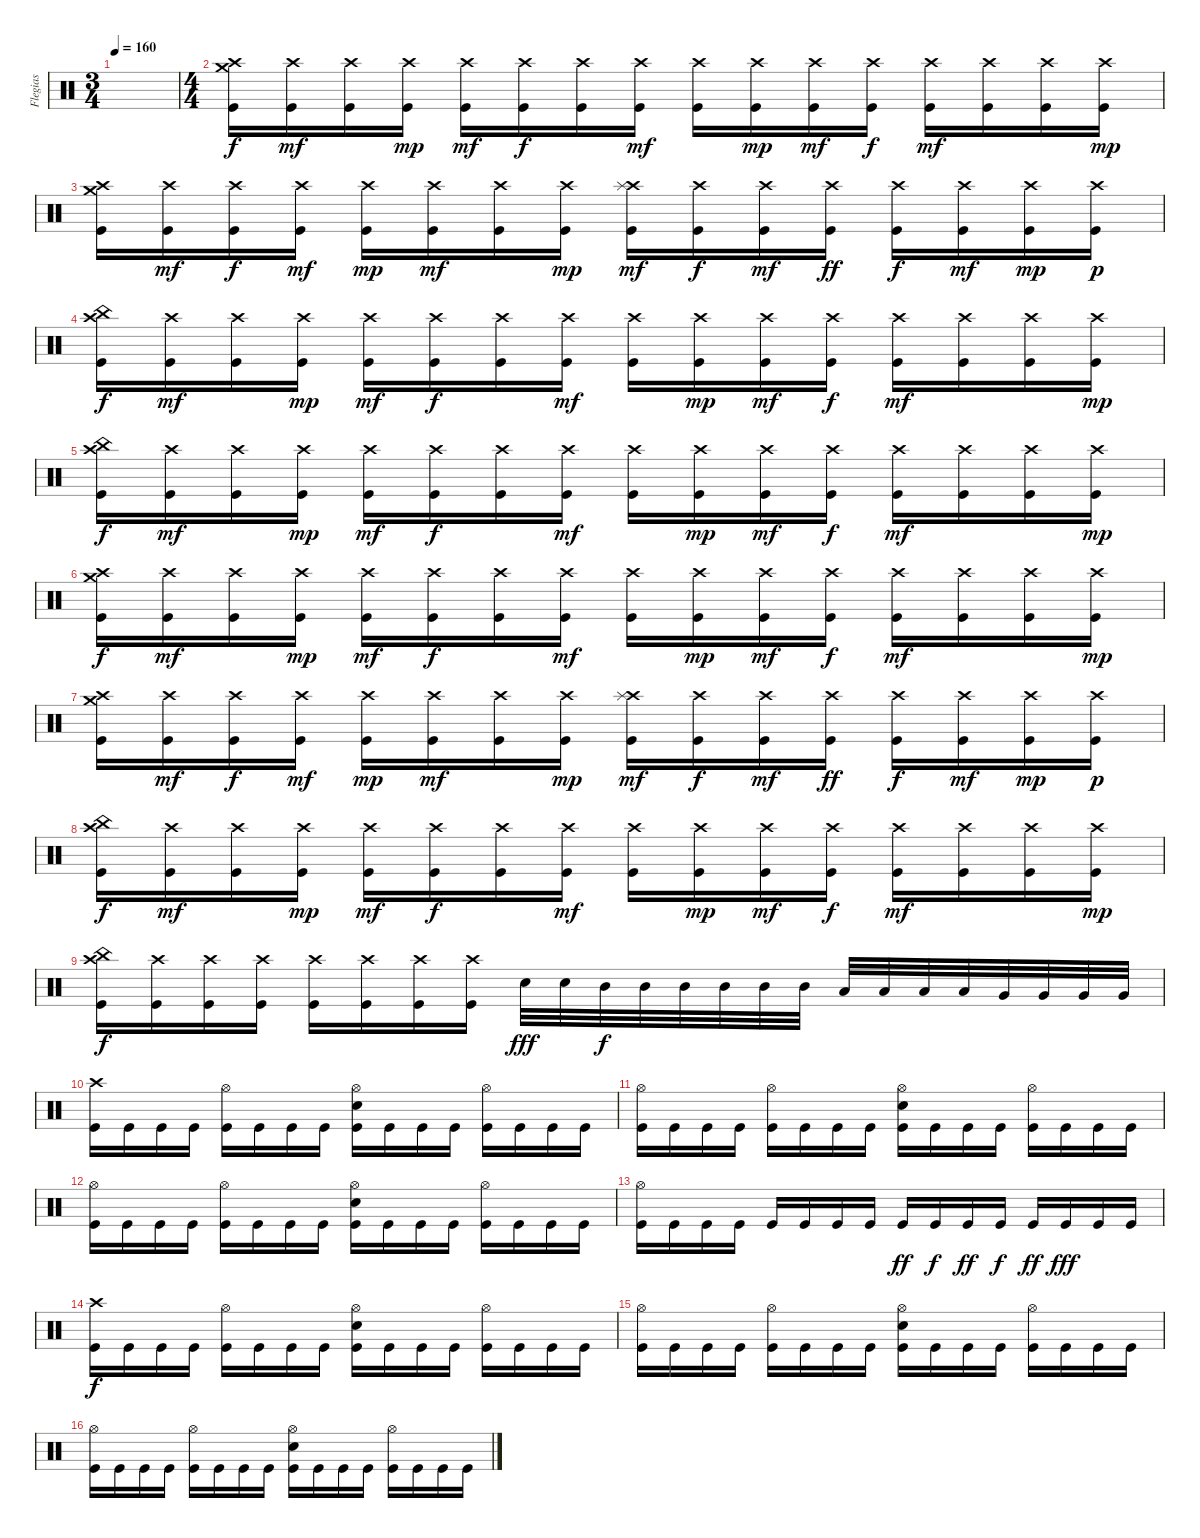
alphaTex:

\track ("Flegias" "Flegias") {instrument percussion}
\staff {score}
\articulation defaults
\ts (3 4)
\tempo 160
\clef neutral
\ks c
|
\ts (4 4)
("Crash high (hit)" "Crash medium (hit)" "Kick (hit)").16 ("Crash high (hit)" "Kick (hit)").16{dy mf} ("Crash high (hit)" "Kick (hit)").16 ("Crash high (hit)" "Kick (hit)").16{dy mp} ("Crash high (hit)" "Kick (hit)").16{dy mf} ("Crash high (hit)" "Kick (hit)").16{dy f} ("Crash high (hit)" "Kick (hit)").16 ("Crash high (hit)" "Kick (hit)").16{dy mf} ("Crash high (hit)" "Kick (hit)").16 ("Crash high (hit)" "Kick (hit)").16{dy mp} ("Crash high (hit)" "Kick (hit)").16{dy mf} ("Crash high (hit)" "Kick (hit)").16{dy f} ("Crash high (hit)" "Kick (hit)").16{dy mf} ("Crash high (hit)" "Kick (hit)").16 ("Crash high (hit)" "Kick (hit)").16 ("Crash high (hit)" "Kick (hit)").16{dy mp} |
("Crash high (hit)" "Crash medium (hit)" "Kick (hit)").16 ("Crash high (hit)" "Kick (hit)").16{dy mf} ("Crash high (hit)" "Kick (hit)").16{dy f} ("Crash high (hit)" "Kick (hit)").16{dy mf} ("Crash high (hit)" "Kick (hit)").16{dy mp} ("Crash high (hit)" "Kick (hit)").16{dy mf} ("Crash high (hit)" "Kick (hit)").16 ("Crash high (hit)" "Kick (hit)").16{dy mp} ("Crash high (hit)" "Splash (hit)" "Kick (hit)").16{dy mf} ("Crash high (hit)" "Kick (hit)").16{dy f} ("Crash high (hit)" "Kick (hit)").16{dy mf} ("Crash high (hit)" "Kick (hit)").16{dy ff} ("Crash high (hit)" "Kick (hit)").16{dy f} ("Crash high (hit)" "Kick (hit)").16{dy mf} ("Crash high (hit)" "Kick (hit)").16{dy mp} ("Crash high (hit)" "Kick (hit)").16{dy p} |
("Crash high (hit)" "China (hit)" "Kick (hit)").16{dy f} ("Crash high (hit)" "Kick (hit)").16{dy mf} ("Crash high (hit)" "Kick (hit)").16 ("Crash high (hit)" "Kick (hit)").16{dy mp} ("Crash high (hit)" "Kick (hit)").16{dy mf} ("Crash high (hit)" "Kick (hit)").16{dy f} ("Crash high (hit)" "Kick (hit)").16 ("Crash high (hit)" "Kick (hit)").16{dy mf} ("Crash high (hit)" "Kick (hit)").16 ("Crash high (hit)" "Kick (hit)").16{dy mp} ("Crash high (hit)" "Kick (hit)").16{dy mf} ("Crash high (hit)" "Kick (hit)").16{dy f} ("Crash high (hit)" "Kick (hit)").16{dy mf} ("Crash high (hit)" "Kick (hit)").16 ("Crash high (hit)" "Kick (hit)").16 ("Crash high (hit)" "Kick (hit)").16{dy mp} |
("Crash high (hit)" "China (hit)" "Kick (hit)").16{dy f} ("Crash high (hit)" "Kick (hit)").16{dy mf} ("Crash high (hit)" "Kick (hit)").16 ("Crash high (hit)" "Kick (hit)").16{dy mp} ("Crash high (hit)" "Kick (hit)").16{dy mf} ("Crash high (hit)" "Kick (hit)").16{dy f} ("Crash high (hit)" "Kick (hit)").16 ("Crash high (hit)" "Kick (hit)").16{dy mf} ("Crash high (hit)" "Kick (hit)").16 ("Crash high (hit)" "Kick (hit)").16{dy mp} ("Crash high (hit)" "Kick (hit)").16{dy mf} ("Crash high (hit)" "Kick (hit)").16{dy f} ("Crash high (hit)" "Kick (hit)").16{dy mf} ("Crash high (hit)" "Kick (hit)").16 ("Crash high (hit)" "Kick (hit)").16 ("Crash high (hit)" "Kick (hit)").16{dy mp} |
("Crash high (hit)" "Crash medium (hit)" "Kick (hit)").16{dy f} ("Crash high (hit)" "Kick (hit)").16{dy mf} ("Crash high (hit)" "Kick (hit)").16 ("Crash high (hit)" "Kick (hit)").16{dy mp} ("Crash high (hit)" "Kick (hit)").16{dy mf} ("Crash high (hit)" "Kick (hit)").16{dy f} ("Crash high (hit)" "Kick (hit)").16 ("Crash high (hit)" "Kick (hit)").16{dy mf} ("Crash high (hit)" "Kick (hit)").16 ("Crash high (hit)" "Kick (hit)").16{dy mp} ("Crash high (hit)" "Kick (hit)").16{dy mf} ("Crash high (hit)" "Kick (hit)").16{dy f} ("Crash high (hit)" "Kick (hit)").16{dy mf} ("Crash high (hit)" "Kick (hit)").16 ("Crash high (hit)" "Kick (hit)").16 ("Crash high (hit)" "Kick (hit)").16{dy mp} |
("Crash high (hit)" "Crash medium (hit)" "Kick (hit)").16 ("Crash high (hit)" "Kick (hit)").16{dy mf} ("Crash high (hit)" "Kick (hit)").16{dy f} ("Crash high (hit)" "Kick (hit)").16{dy mf} ("Crash high (hit)" "Kick (hit)").16{dy mp} ("Crash high (hit)" "Kick (hit)").16{dy mf} ("Crash high (hit)" "Kick (hit)").16 ("Crash high (hit)" "Kick (hit)").16{dy mp} ("Crash high (hit)" "Splash (hit)" "Kick (hit)").16{dy mf} ("Crash high (hit)" "Kick (hit)").16{dy f} ("Crash high (hit)" "Kick (hit)").16{dy mf} ("Crash high (hit)" "Kick (hit)").16{dy ff} ("Crash high (hit)" "Kick (hit)").16{dy f} ("Crash high (hit)" "Kick (hit)").16{dy mf} ("Crash high (hit)" "Kick (hit)").16{dy mp} ("Crash high (hit)" "Kick (hit)").16{dy p} |
("Crash high (hit)" "China (hit)" "Kick (hit)").16{dy f} ("Crash high (hit)" "Kick (hit)").16{dy mf} ("Crash high (hit)" "Kick (hit)").16 ("Crash high (hit)" "Kick (hit)").16{dy mp} ("Crash high (hit)" "Kick (hit)").16{dy mf} ("Crash high (hit)" "Kick (hit)").16{dy f} ("Crash high (hit)" "Kick (hit)").16 ("Crash high (hit)" "Kick (hit)").16{dy mf} ("Crash high (hit)" "Kick (hit)").16 ("Crash high (hit)" "Kick (hit)").16{dy mp} ("Crash high (hit)" "Kick (hit)").16{dy mf} ("Crash high (hit)" "Kick (hit)").16{dy f} ("Crash high (hit)" "Kick (hit)").16{dy mf} ("Crash high (hit)" "Kick (hit)").16 ("Crash high (hit)" "Kick (hit)").16 ("Crash high (hit)" "Kick (hit)").16{dy mp} |
("Crash high (hit)" "China (hit)" "Kick (hit)").16{dy f} ("Crash high (hit)" "Kick (hit)").16 ("Crash high (hit)" "Kick (hit)").16 ("Crash high (hit)" "Kick (hit)").16 ("Crash high (hit)" "Kick (hit)").16 ("Crash high (hit)" "Kick (hit)").16 ("Crash high (hit)" "Kick (hit)").16 ("Crash high (hit)" "Kick (hit)").16 "Snare (hit) 2".32{dy fff} "Snare (hit) 2".32 "Mid Tom (hit)".32{dy f} "Mid Tom (hit)".32 "Mid Tom (hit)".32 "Mid Tom (hit)".32 "Mid Tom (hit)".32 "Mid Tom (hit)".32 "Low Tom (hit)".32 "Low Tom (hit)".32 "Low Tom (hit)".32 "Low Tom (hit)".32 "Very Low Tom (hit)".32 "Very Low Tom (hit)".32 "Very Low Tom (hit)".32 "Very Low Tom (hit)".32 |
("Crash high (hit)" "Kick (hit)").16 "Kick (hit)".16 "Kick (hit)".16 "Kick (hit)".16 ("Hi-Hat (open)" "Kick (hit)").16 "Kick (hit)".16 "Kick (hit)".16 "Kick (hit)".16 ("Hi-Hat (open)" "Snare (hit) 2" "Kick (hit)").16 "Kick (hit)".16 "Kick (hit)".16 "Kick (hit)".16 ("Hi-Hat (open)" "Kick (hit)").16 "Kick (hit)".16 "Kick (hit)".16 "Kick (hit)".16 |
("Hi-Hat (open)" "Kick (hit)").16 "Kick (hit)".16 "Kick (hit)".16 "Kick (hit)".16 ("Hi-Hat (open)" "Kick (hit)").16 "Kick (hit)".16 "Kick (hit)".16 "Kick (hit)".16 ("Hi-Hat (open)" "Snare (hit) 2" "Kick (hit)").16 "Kick (hit)".16 "Kick (hit)".16 "Kick (hit)".16 ("Hi-Hat (open)" "Kick (hit)").16 "Kick (hit)".16 "Kick (hit)".16 "Kick (hit)".16 |
("Hi-Hat (open)" "Kick (hit)").16 "Kick (hit)".16 "Kick (hit)".16 "Kick (hit)".16 ("Hi-Hat (open)" "Kick (hit)").16 "Kick (hit)".16 "Kick (hit)".16 "Kick (hit)".16 ("Hi-Hat (open)" "Snare (hit) 2" "Kick (hit)").16 "Kick (hit)".16 "Kick (hit)".16 "Kick (hit)".16 ("Hi-Hat (open)" "Kick (hit)").16 "Kick (hit)".16 "Kick (hit)".16 "Kick (hit)".16 |
("Hi-Hat (open)" "Kick (hit)").16 "Kick (hit)".16 "Kick (hit)".16 "Kick (hit)".16 "Kick (hit)".16 "Kick (hit)".16 "Kick (hit)".16 "Kick (hit)".16 "Kick (hit)".16{dy ff} "Kick (hit)".16{dy f} "Kick (hit)".16{dy ff} "Kick (hit)".16{dy f} "Kick (hit)".16{dy ff} "Kick (hit)".16{dy fff} "Kick (hit)".16 "Kick (hit)".16 |
("Crash high (hit)" "Kick (hit)").16{dy f} "Kick (hit)".16 "Kick (hit)".16 "Kick (hit)".16 ("Hi-Hat (open)" "Kick (hit)").16 "Kick (hit)".16 "Kick (hit)".16 "Kick (hit)".16 ("Hi-Hat (open)" "Snare (hit) 2" "Kick (hit)").16 "Kick (hit)".16 "Kick (hit)".16 "Kick (hit)".16 ("Hi-Hat (open)" "Kick (hit)").16 "Kick (hit)".16 "Kick (hit)".16 "Kick (hit)".16 |
("Hi-Hat (open)" "Kick (hit)").16 "Kick (hit)".16 "Kick (hit)".16 "Kick (hit)".16 ("Hi-Hat (open)" "Kick (hit)").16 "Kick (hit)".16 "Kick (hit)".16 "Kick (hit)".16 ("Hi-Hat (open)" "Snare (hit) 2" "Kick (hit)").16 "Kick (hit)".16 "Kick (hit)".16 "Kick (hit)".16 ("Hi-Hat (open)" "Kick (hit)").16 "Kick (hit)".16 "Kick (hit)".16 "Kick (hit)".16 |
("Hi-Hat (open)" "Kick (hit)").16 "Kick (hit)".16 "Kick (hit)".16 "Kick (hit)".16 ("Hi-Hat (open)" "Kick (hit)").16 "Kick (hit)".16 "Kick (hit)".16 "Kick (hit)".16 ("Hi-Hat (open)" "Snare (hit) 2" "Kick (hit)").16 "Kick (hit)".16 "Kick (hit)".16 "Kick (hit)".16 ("Hi-Hat (open)" "Kick (hit)").16 "Kick (hit)".16 "Kick (hit)".16 "Kick (hit)".16
